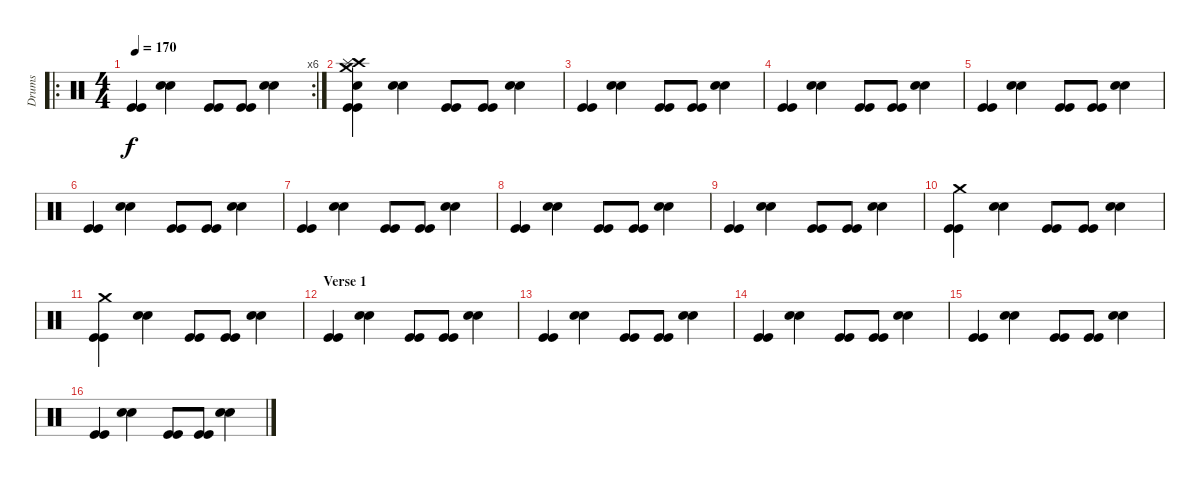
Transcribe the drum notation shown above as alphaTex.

\track ("Drums" "Drums") {instrument percussion}
\staff {score}
\articulation defaults
\ro
\rc 6
\ts (4 4)
\tempo 170
\clef neutral
\ks c
("Kick (hit)" "Kick (hit)").4{dy f} ("Electric Snare (hit)" "Electric Snare (hit)").4 ("Kick (hit)" "Kick (hit)").8 ("Kick (hit)" "Kick (hit)").8 ("Electric Snare (hit)" "Electric Snare (hit)").4 |
("Electric Snare (hit)" "Crash high (hit)" "Splash (hit)" "Crash medium (hit)" "Kick (hit)" "Kick (hit)").4 ("Snare (hit) 2" "Snare (hit) 2").4 ("Kick (hit)" "Kick (hit)").8 ("Kick (hit)" "Kick (hit)").8 ("Snare (hit) 2" "Snare (hit) 2").4 |
("Kick (hit)" "Kick (hit)").4 ("Snare (hit) 2" "Snare (hit) 2").4 ("Kick (hit)" "Kick (hit)").8 ("Kick (hit)" "Kick (hit)").8 ("Snare (hit) 2" "Snare (hit) 2").4 |
("Kick (hit)" "Kick (hit)").4 ("Snare (hit) 2" "Snare (hit) 2").4 ("Kick (hit)" "Kick (hit)").8 ("Kick (hit)" "Kick (hit)").8 ("Snare (hit) 2" "Snare (hit) 2").4 |
("Kick (hit)" "Kick (hit)").4 ("Snare (hit) 2" "Snare (hit) 2").4 ("Kick (hit)" "Kick (hit)").8 ("Kick (hit)" "Kick (hit)").8 ("Snare (hit) 2" "Snare (hit) 2").4 |
("Kick (hit)" "Kick (hit)").4 ("Snare (hit) 2" "Snare (hit) 2").4 ("Kick (hit)" "Kick (hit)").8 ("Kick (hit)" "Kick (hit)").8 ("Snare (hit) 2" "Snare (hit) 2").4 |
("Kick (hit)" "Kick (hit)").4 ("Snare (hit) 2" "Snare (hit) 2").4 ("Kick (hit)" "Kick (hit)").8 ("Kick (hit)" "Kick (hit)").8 ("Snare (hit) 2" "Snare (hit) 2").4 |
("Kick (hit)" "Kick (hit)").4 ("Snare (hit) 2" "Snare (hit) 2").4 ("Kick (hit)" "Kick (hit)").8 ("Kick (hit)" "Kick (hit)").8 ("Snare (hit) 2" "Snare (hit) 2").4 |
("Kick (hit)" "Kick (hit)").4 ("Snare (hit) 2" "Snare (hit) 2").4 ("Kick (hit)" "Kick (hit)").8 ("Kick (hit)" "Kick (hit)").8 ("Snare (hit) 2" "Snare (hit) 2").4 |
("Crash medium (hit)" "Kick (hit)" "Kick (hit)").4 ("Snare (hit) 2" "Snare (hit) 2").4 ("Kick (hit)" "Kick (hit)").8 ("Kick (hit)" "Kick (hit)").8 ("Snare (hit) 2" "Snare (hit) 2").4 |
("Crash medium (hit)" "Kick (hit)" "Kick (hit)").4 ("Snare (hit) 2" "Snare (hit) 2").4 ("Kick (hit)" "Kick (hit)").8 ("Kick (hit)" "Kick (hit)").8 ("Snare (hit) 2" "Snare (hit) 2").4 |
\section ("" "Verse 1")
("Kick (hit)" "Kick (hit)").4 ("Snare (hit) 2" "Snare (hit) 2").4 ("Kick (hit)" "Kick (hit)").8 ("Kick (hit)" "Kick (hit)").8 ("Snare (hit) 2" "Snare (hit) 2").4 |
("Kick (hit)" "Kick (hit)").4 ("Snare (hit) 2" "Snare (hit) 2").4 ("Kick (hit)" "Kick (hit)").8 ("Kick (hit)" "Kick (hit)").8 ("Snare (hit) 2" "Snare (hit) 2").4 |
("Kick (hit)" "Kick (hit)").4 ("Snare (hit) 2" "Snare (hit) 2").4 ("Kick (hit)" "Kick (hit)").8 ("Kick (hit)" "Kick (hit)").8 ("Snare (hit) 2" "Snare (hit) 2").4 |
("Kick (hit)" "Kick (hit)").4 ("Snare (hit) 2" "Snare (hit) 2").4 ("Kick (hit)" "Kick (hit)").8 ("Kick (hit)" "Kick (hit)").8 ("Snare (hit) 2" "Snare (hit) 2").4 |
("Kick (hit)" "Kick (hit)").4 ("Snare (hit) 2" "Snare (hit) 2").4 ("Kick (hit)" "Kick (hit)").8 ("Kick (hit)" "Kick (hit)").8 ("Snare (hit) 2" "Snare (hit) 2").4
